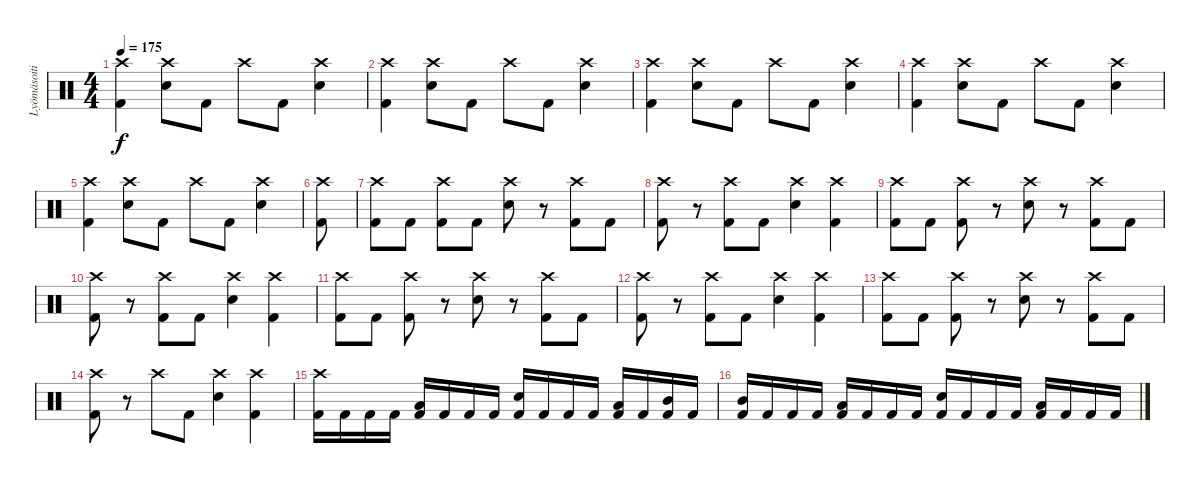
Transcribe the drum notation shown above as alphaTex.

\track ("Lyömäsoitin" "Lyömäsoiti") {instrument percussion}
\staff {score}
\articulation defaults
\ts (4 4)
\tempo 175
\clef neutral
\ks c
("Kick (hit) 2" "Crash high (hit)").4{dy f} ("Electric Snare (hit)" "Crash high (hit)").8 "Kick (hit) 2".8 "Crash high (hit)".8 "Kick (hit) 2".8 ("Electric Snare (hit)" "Crash high (hit)").4 |
("Kick (hit) 2" "Crash high (hit)").4 ("Electric Snare (hit)" "Crash high (hit)").8 "Kick (hit) 2".8 "Crash high (hit)".8 "Kick (hit) 2".8 ("Electric Snare (hit)" "Crash high (hit)").4 |
("Kick (hit) 2" "Crash high (hit)").4 ("Electric Snare (hit)" "Crash high (hit)").8 "Kick (hit) 2".8 "Crash high (hit)".8 "Kick (hit) 2".8 ("Electric Snare (hit)" "Crash high (hit)").4 |
("Kick (hit) 2" "Crash high (hit)").4 ("Electric Snare (hit)" "Crash high (hit)").8 "Kick (hit) 2".8 "Crash high (hit)".8 "Kick (hit) 2".8 ("Electric Snare (hit)" "Crash high (hit)").4 |
("Kick (hit) 2" "Crash high (hit)").4 ("Electric Snare (hit)" "Crash high (hit)").8 "Kick (hit) 2".8 "Crash high (hit)".8 "Kick (hit) 2".8 ("Electric Snare (hit)" "Crash high (hit)").4 |
("Kick (hit) 2" "Crash high (hit)").8 |
("Kick (hit) 2" "Crash high (hit)").8 "Kick (hit) 2".8 ("Kick (hit) 2" "Crash high (hit)").8 "Kick (hit) 2".8 ("Electric Snare (hit)" "Crash high (hit)").8 r.8 ("Kick (hit) 2" "Crash high (hit)").8 "Kick (hit) 2".8 |
("Kick (hit) 2" "Crash high (hit)").8 r.8 ("Kick (hit) 2" "Crash high (hit)").8 "Kick (hit) 2".8 ("Electric Snare (hit)" "Crash high (hit)").4 ("Kick (hit) 2" "Crash high (hit)").4 |
("Kick (hit) 2" "Crash high (hit)").8 "Kick (hit) 2".8 ("Kick (hit) 2" "Crash high (hit)").8 r.8 ("Electric Snare (hit)" "Crash high (hit)").8 r.8 ("Kick (hit) 2" "Crash high (hit)").8 "Kick (hit) 2".8 |
("Kick (hit) 2" "Crash high (hit)").8 r.8 ("Kick (hit) 2" "Crash high (hit)").8 "Kick (hit) 2".8 ("Electric Snare (hit)" "Crash high (hit)").4 ("Kick (hit) 2" "Crash high (hit)").4 |
("Kick (hit) 2" "Crash high (hit)").8 "Kick (hit) 2".8 ("Kick (hit) 2" "Crash high (hit)").8 r.8 ("Electric Snare (hit)" "Crash high (hit)").8 r.8 ("Kick (hit) 2" "Crash high (hit)").8 "Kick (hit) 2".8 |
("Kick (hit) 2" "Crash high (hit)").8 r.8 ("Kick (hit) 2" "Crash high (hit)").8 "Kick (hit) 2".8 ("Electric Snare (hit)" "Crash high (hit)").4 ("Kick (hit) 2" "Crash high (hit)").4 |
("Kick (hit) 2" "Crash high (hit)").8 "Kick (hit) 2".8 ("Kick (hit) 2" "Crash high (hit)").8 r.8 ("Electric Snare (hit)" "Crash high (hit)").8 r.8 ("Kick (hit) 2" "Crash high (hit)").8 "Kick (hit) 2".8 |
("Kick (hit) 2" "Crash high (hit)").8 r.8 "Crash high (hit)".8 "Kick (hit) 2".8 ("Electric Snare (hit)" "Crash high (hit)").4 ("Kick (hit) 2" "Crash high (hit)").4 |
("Kick (hit) 2" "Crash high (hit)").16 "Kick (hit) 2".16 "Kick (hit) 2".16 "Kick (hit) 2".16 ("Kick (hit) 2" "Low Tom (hit)").16 "Kick (hit) 2".16 "Kick (hit) 2".16 "Kick (hit) 2".16 ("Kick (hit) 2" "Electric Snare (hit)").16 "Kick (hit) 2".16 "Kick (hit) 2".16 "Kick (hit) 2".16 ("Kick (hit) 2" "Low Tom (hit)").16 "Kick (hit) 2".16 ("Kick (hit) 2" "Mid Tom (hit)").16 "Kick (hit) 2".16 |
("Kick (hit) 2" "Mid Tom (hit)").16 "Kick (hit) 2".16 "Kick (hit) 2".16 "Kick (hit) 2".16 ("Kick (hit) 2" "Low Tom (hit)").16 "Kick (hit) 2".16 "Kick (hit) 2".16 "Kick (hit) 2".16 ("Kick (hit) 2" "Electric Snare (hit)").16 "Kick (hit) 2".16 "Kick (hit) 2".16 "Kick (hit) 2".16 ("Kick (hit) 2" "Low Floor Tom (hit)").16 "Kick (hit) 2".16 "Kick (hit) 2".16 "Kick (hit) 2".16
